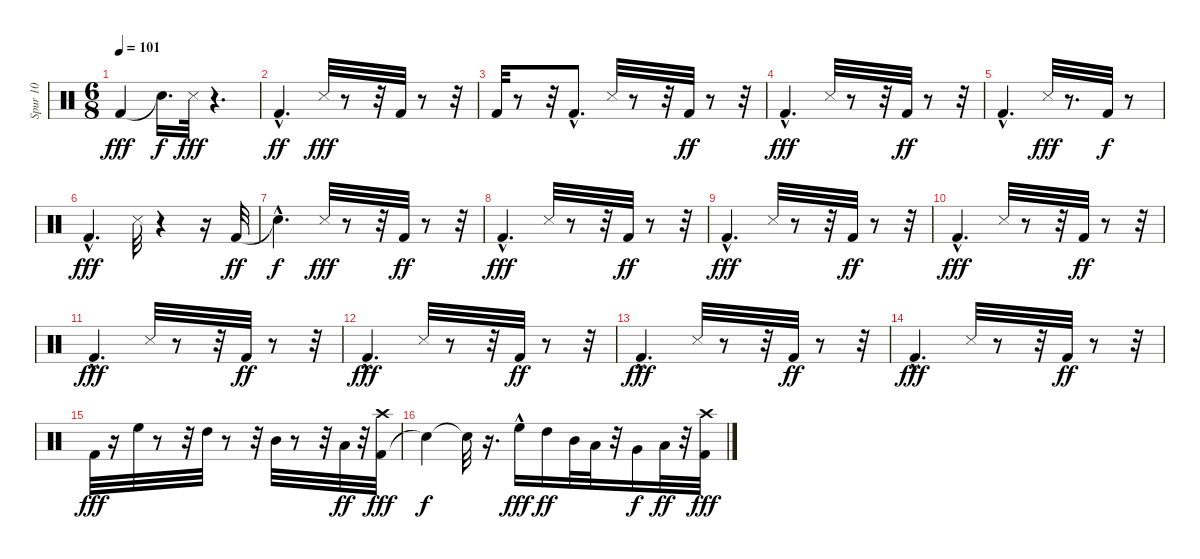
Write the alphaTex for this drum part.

\track ("Spur 10" "Spur 10") {instrument percussion}
\staff {score}
\articulation defaults
\ts (6 8)
\tempo 101
\clef neutral
\ks c "Kick (hit) 2".4{dy fff} "Snare (hit)"{t}.16{d dy f} "Snare (side stick) 3".32{dy fff}
r.4{d} |
"Kick (hit) 2"{hac}.4{d dy ff} "Snare (side stick) 3".32{dy fff} r.8 r.32 "Kick (hit) 2".32 r.8 r.32 |
"Kick (hit) 2".32 r.8 r.32 "Kick (hit) 2"{hac}.8{d} "Snare (side stick) 3".32 r.8 r.32 "Kick (hit) 2".32{dy ff} r.8 r.32 |
"Kick (hit) 2"{hac}.4{d dy fff} "Snare (side stick) 3".32 r.8 r.32 "Kick (hit) 2".32{dy ff} r.8 r.32 |
"Kick (hit) 2"{hac}.4{d} "Snare (side stick) 3".32{dy fff} r.8{d} "Kick (hit) 2".32{dy f} r.8 |
"Kick (hit) 2"{hac}.4{d dy fff} "Snare (side stick) 3".32 r.4 r.16 "Kick (hit) 2".32{dy ff} |
"Snare (hit)"{hac t}.4{d dy f} "Snare (side stick) 3".32{dy fff} r.8 r.32 "Kick (hit) 2".32{dy ff} r.8 r.32 |
"Kick (hit) 2"{hac}.4{d dy fff} "Snare (side stick) 3".32 r.8 r.32 "Kick (hit) 2".32{dy ff} r.8 r.32 |
"Kick (hit) 2"{hac}.4{d dy fff} "Snare (side stick) 3".32 r.8 r.32 "Kick (hit) 2".32{dy ff} r.8 r.32 |
"Kick (hit) 2"{hac}.4{d dy fff} "Snare (side stick) 3".32 r.8 r.32 "Kick (hit) 2".32{dy ff} r.8 r.32 |
"Kick (hit) 2"{hac}.4{d dy fff} "Snare (side stick) 3".32 r.8 r.32 "Kick (hit) 2".32{dy ff} r.8 r.32 |
"Kick (hit) 2"{hac}.4{d dy fff} "Snare (side stick) 3".32 r.8 r.32 "Kick (hit) 2".32{dy ff} r.8 r.32 |
"Kick (hit) 2"{hac}.4{d dy fff} "Snare (side stick) 3".32 r.8 r.32 "Kick (hit) 2".32{dy ff} r.8 r.32 |
"Kick (hit) 2"{hac}.4{d dy fff} "Snare (side stick) 3".32 r.8 r.32 "Kick (hit) 2".32{dy ff} r.8 r.32 |
"Kick (hit) 2".32{dy fff} r.16 "High Floor Tom (hit)".32 r.8 r.32 "High Tom (hit)".32 r.8 r.32 "Mid Tom (hit)".32 r.8 r.32 "Low Tom (hit)".32{dy ff} r.32 ("Kick (hit) 2" "Crash high (hit)").32{dy fff} |
"Snare (hit)"{t}.4{dy f} "Snare (hit)"{t}.32 r.16{d} "High Floor Tom (hit)"{hac}.16{dy fff} "High Tom (hit)".16{dy ff} "Mid Tom (hit)".32 "Low Tom (hit)".32 r.32 "Very Low Tom (hit)".16{dy f} "Low Floor Tom (hit)".32{dy ff} r.32 ("Kick (hit) 2" "Crash high (hit)").32{dy fff}
